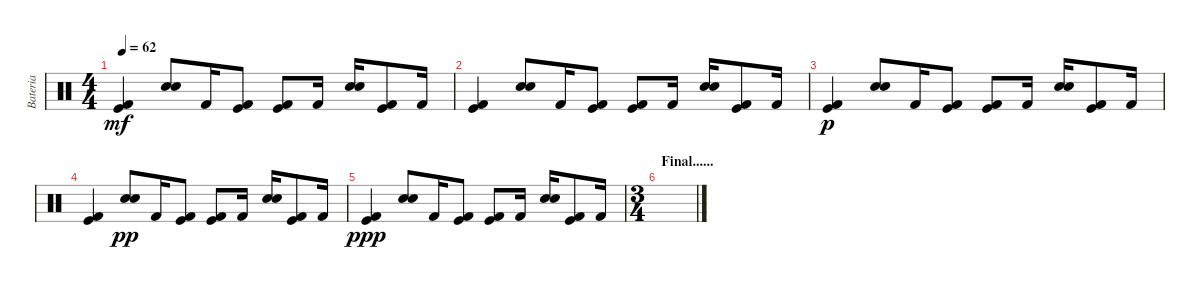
\track ("Bateria" "Bateria") {instrument percussion}
\staff {score}
\articulation defaults
\ts (4 4)
\tempo 62
\clef neutral
\ks c
("Kick (hit)" "Kick (hit) 2").4{dy mf} ("Snare (hit) 2" "Electric Snare (hit)").8 "Kick (hit) 2".16 ("Kick (hit)" "Kick (hit) 2").8 ("Kick (hit)" "Kick (hit) 2").8 "Kick (hit) 2".16 ("Snare (hit) 2" "Electric Snare (hit)").16 ("Kick (hit)" "Kick (hit) 2").8 "Kick (hit) 2".16 |
("Kick (hit)" "Kick (hit) 2").4 ("Snare (hit) 2" "Electric Snare (hit)").8 "Kick (hit) 2".16 ("Kick (hit)" "Kick (hit) 2").8 ("Kick (hit)" "Kick (hit) 2").8 "Kick (hit) 2".16 ("Snare (hit) 2" "Electric Snare (hit)").16 ("Kick (hit)" "Kick (hit) 2").8 "Kick (hit) 2".16 |
("Kick (hit)" "Kick (hit) 2").4{dy p} ("Snare (hit) 2" "Electric Snare (hit)").8 "Kick (hit) 2".16 ("Kick (hit)" "Kick (hit) 2").8 ("Kick (hit)" "Kick (hit) 2").8 "Kick (hit) 2".16 ("Snare (hit) 2" "Electric Snare (hit)").16 ("Kick (hit)" "Kick (hit) 2").8 "Kick (hit) 2".16 |
("Kick (hit)" "Kick (hit) 2").4 ("Snare (hit) 2" "Electric Snare (hit)").8{dy pp} "Kick (hit) 2".16 ("Kick (hit)" "Kick (hit) 2").8 ("Kick (hit)" "Kick (hit) 2").8 "Kick (hit) 2".16 ("Snare (hit) 2" "Electric Snare (hit)").16 ("Kick (hit)" "Kick (hit) 2").8 "Kick (hit) 2".16 |
("Kick (hit)" "Kick (hit) 2").4{dy ppp} ("Snare (hit) 2" "Electric Snare (hit)").8 "Kick (hit) 2".16 ("Kick (hit)" "Kick (hit) 2").8 ("Kick (hit)" "Kick (hit) 2").8 "Kick (hit) 2".16 ("Snare (hit) 2" "Electric Snare (hit)").16 ("Kick (hit)" "Kick (hit) 2").8 "Kick (hit) 2".16 |
\ts (3 4)
\section ("" "Final......")
